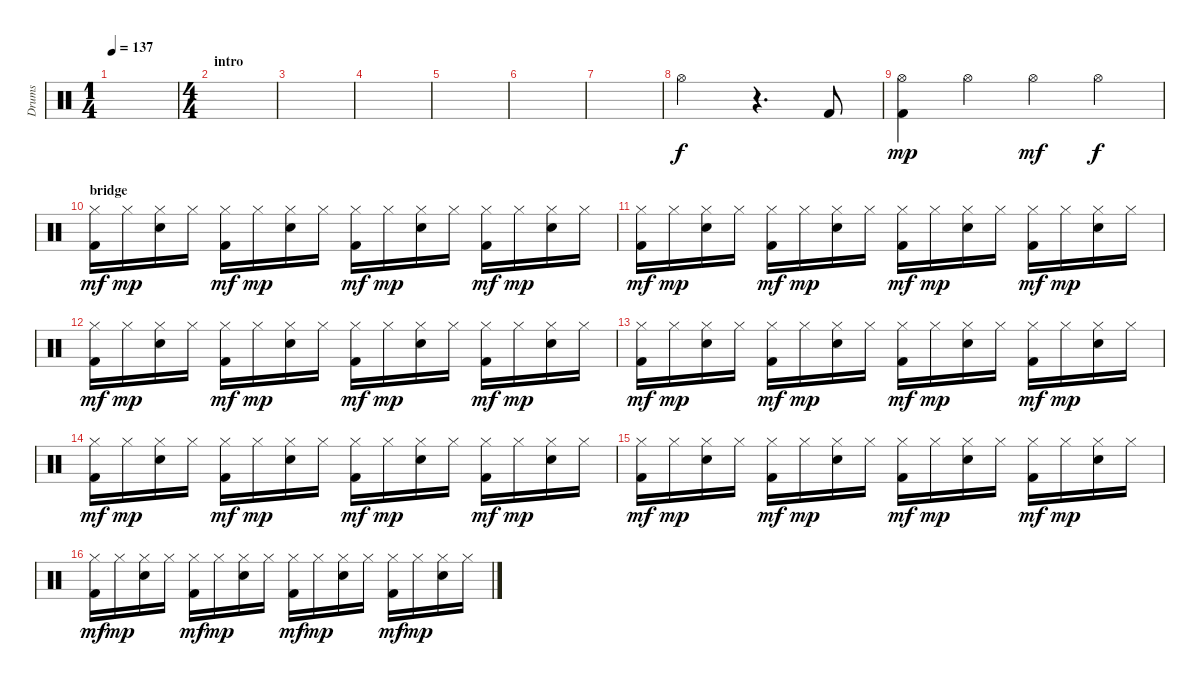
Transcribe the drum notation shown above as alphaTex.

\track ("Drums" "Drums") {instrument percussion}
\staff {score}
\articulation defaults
\ts (1 4)
\tempo 137
\clef neutral
\ks c
|
\ts (4 4)
\section ("" "intro")
|
|
|
|
|
|
"Hi-Hat (open)".2 r.4{d} "Kick (hit) 2".8 |
("Hi-Hat (open)" "Kick (hit) 2").4{dy mp} "Hi-Hat (open)".4 "Hi-Hat (open)".4{dy mf} "Hi-Hat (open)".4{dy f} |
\section ("" "bridge")
("Hi-Hat (closed)" "Kick (hit) 2").16{dy mf} "Hi-Hat (closed)".16{dy mp} ("Hi-Hat (closed)" "Snare (hit) 2").16 "Hi-Hat (closed)".16 ("Hi-Hat (closed)" "Kick (hit) 2").16{dy mf} "Hi-Hat (closed)".16{dy mp} ("Hi-Hat (closed)" "Snare (hit) 2").16 "Hi-Hat (closed)".16 ("Hi-Hat (closed)" "Kick (hit) 2").16{dy mf} "Hi-Hat (closed)".16{dy mp} ("Hi-Hat (closed)" "Snare (hit) 2").16 "Hi-Hat (closed)".16 ("Hi-Hat (closed)" "Kick (hit) 2").16{dy mf} "Hi-Hat (closed)".16{dy mp} ("Hi-Hat (closed)" "Snare (hit) 2").16 "Hi-Hat (closed)".16 |
("Hi-Hat (closed)" "Kick (hit) 2").16{dy mf} "Hi-Hat (closed)".16{dy mp} ("Hi-Hat (closed)" "Snare (hit) 2").16 "Hi-Hat (closed)".16 ("Hi-Hat (closed)" "Kick (hit) 2").16{dy mf} "Hi-Hat (closed)".16{dy mp} ("Hi-Hat (closed)" "Snare (hit) 2").16 "Hi-Hat (closed)".16 ("Hi-Hat (closed)" "Kick (hit) 2").16{dy mf} "Hi-Hat (closed)".16{dy mp} ("Hi-Hat (closed)" "Snare (hit) 2").16 "Hi-Hat (closed)".16 ("Hi-Hat (closed)" "Kick (hit) 2").16{dy mf} "Hi-Hat (closed)".16{dy mp} ("Hi-Hat (closed)" "Snare (hit) 2").16 "Hi-Hat (closed)".16 |
("Hi-Hat (closed)" "Kick (hit) 2").16{dy mf} "Hi-Hat (closed)".16{dy mp} ("Hi-Hat (closed)" "Snare (hit) 2").16 "Hi-Hat (closed)".16 ("Hi-Hat (closed)" "Kick (hit) 2").16{dy mf} "Hi-Hat (closed)".16{dy mp} ("Hi-Hat (closed)" "Snare (hit) 2").16 "Hi-Hat (closed)".16 ("Hi-Hat (closed)" "Kick (hit) 2").16{dy mf} "Hi-Hat (closed)".16{dy mp} ("Hi-Hat (closed)" "Snare (hit) 2").16 "Hi-Hat (closed)".16 ("Hi-Hat (closed)" "Kick (hit) 2").16{dy mf} "Hi-Hat (closed)".16{dy mp} ("Hi-Hat (closed)" "Snare (hit) 2").16 "Hi-Hat (closed)".16 |
("Hi-Hat (closed)" "Kick (hit) 2").16{dy mf} "Hi-Hat (closed)".16{dy mp} ("Hi-Hat (closed)" "Snare (hit) 2").16 "Hi-Hat (closed)".16 ("Hi-Hat (closed)" "Kick (hit) 2").16{dy mf} "Hi-Hat (closed)".16{dy mp} ("Hi-Hat (closed)" "Snare (hit) 2").16 "Hi-Hat (closed)".16 ("Hi-Hat (closed)" "Kick (hit) 2").16{dy mf} "Hi-Hat (closed)".16{dy mp} ("Hi-Hat (closed)" "Snare (hit) 2").16 "Hi-Hat (closed)".16 ("Hi-Hat (closed)" "Kick (hit) 2").16{dy mf} "Hi-Hat (closed)".16{dy mp} ("Hi-Hat (closed)" "Snare (hit) 2").16 "Hi-Hat (closed)".16 |
("Hi-Hat (closed)" "Kick (hit) 2").16{dy mf} "Hi-Hat (closed)".16{dy mp} ("Hi-Hat (closed)" "Snare (hit) 2").16 "Hi-Hat (closed)".16 ("Hi-Hat (closed)" "Kick (hit) 2").16{dy mf} "Hi-Hat (closed)".16{dy mp} ("Hi-Hat (closed)" "Snare (hit) 2").16 "Hi-Hat (closed)".16 ("Hi-Hat (closed)" "Kick (hit) 2").16{dy mf} "Hi-Hat (closed)".16{dy mp} ("Hi-Hat (closed)" "Snare (hit) 2").16 "Hi-Hat (closed)".16 ("Hi-Hat (closed)" "Kick (hit) 2").16{dy mf} "Hi-Hat (closed)".16{dy mp} ("Hi-Hat (closed)" "Snare (hit) 2").16 "Hi-Hat (closed)".16 |
("Hi-Hat (closed)" "Kick (hit) 2").16{dy mf} "Hi-Hat (closed)".16{dy mp} ("Hi-Hat (closed)" "Snare (hit) 2").16 "Hi-Hat (closed)".16 ("Hi-Hat (closed)" "Kick (hit) 2").16{dy mf} "Hi-Hat (closed)".16{dy mp} ("Hi-Hat (closed)" "Snare (hit) 2").16 "Hi-Hat (closed)".16 ("Hi-Hat (closed)" "Kick (hit) 2").16{dy mf} "Hi-Hat (closed)".16{dy mp} ("Hi-Hat (closed)" "Snare (hit) 2").16 "Hi-Hat (closed)".16 ("Hi-Hat (closed)" "Kick (hit) 2").16{dy mf} "Hi-Hat (closed)".16{dy mp} ("Hi-Hat (closed)" "Snare (hit) 2").16 "Hi-Hat (closed)".16 |
("Hi-Hat (closed)" "Kick (hit) 2").16{dy mf} "Hi-Hat (closed)".16{dy mp} ("Hi-Hat (closed)" "Snare (hit) 2").16 "Hi-Hat (closed)".16 ("Hi-Hat (closed)" "Kick (hit) 2").16{dy mf} "Hi-Hat (closed)".16{dy mp} ("Hi-Hat (closed)" "Snare (hit) 2").16 "Hi-Hat (closed)".16 ("Hi-Hat (closed)" "Kick (hit) 2").16{dy mf} "Hi-Hat (closed)".16{dy mp} ("Hi-Hat (closed)" "Snare (hit) 2").16 "Hi-Hat (closed)".16 ("Hi-Hat (closed)" "Kick (hit) 2").16{dy mf} "Hi-Hat (closed)".16{dy mp} ("Hi-Hat (closed)" "Snare (hit) 2").16 "Hi-Hat (closed)".16
